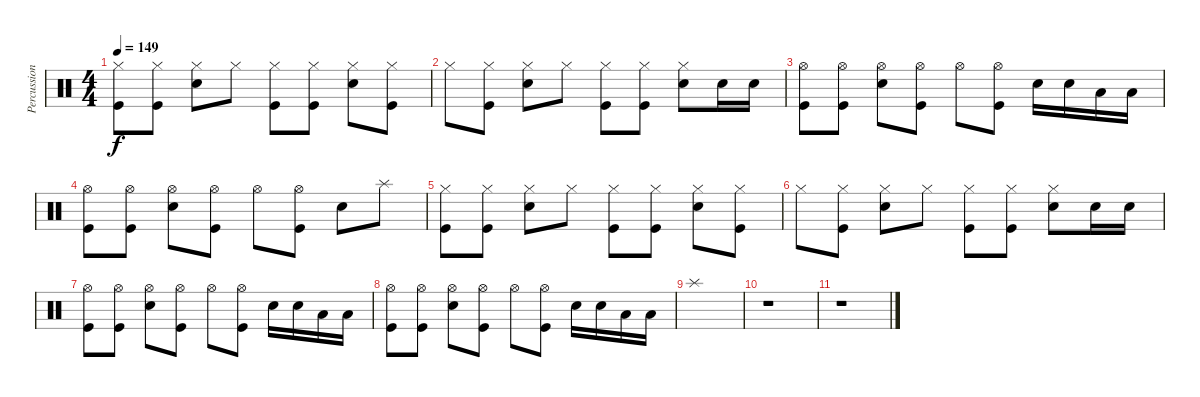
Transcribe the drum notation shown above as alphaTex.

\track ("Percussion" "Percussion") {instrument percussion}
\staff {score}
\articulation defaults
\ts (4 4)
\tempo 149
\clef neutral
\ks c
("Hi-Hat (closed)" "Kick (hit)").8{dy f} ("Hi-Hat (closed)" "Kick (hit)").8 ("Hi-Hat (closed)" "Snare (hit) 2").8 "Hi-Hat (closed)".8 ("Hi-Hat (closed)" "Kick (hit)").8 ("Hi-Hat (closed)" "Kick (hit)").8 ("Hi-Hat (closed)" "Snare (hit) 2").8 ("Hi-Hat (closed)" "Kick (hit)").8 |
"Hi-Hat (closed)".8 ("Hi-Hat (closed)" "Kick (hit)").8 ("Hi-Hat (closed)" "Snare (hit) 2").8 "Hi-Hat (closed)".8 ("Hi-Hat (closed)" "Kick (hit)").8 ("Hi-Hat (closed)" "Kick (hit)").8 ("Hi-Hat (closed)" "Snare (hit) 2").8 "Snare (hit) 2".16 "Snare (hit) 2".16 |
("Hi-Hat (open)" "Kick (hit)").8 ("Hi-Hat (open)" "Kick (hit)").8 ("Hi-Hat (open)" "Snare (hit) 2").8 ("Hi-Hat (open)" "Kick (hit)").8 "Hi-Hat (open)".8 ("Hi-Hat (open)" "Kick (hit)").8 "Snare (hit) 2".16 "Snare (hit) 2".16 "Low Tom (hit)".16 "Low Tom (hit)".16 |
("Hi-Hat (open)" "Kick (hit)").8 ("Hi-Hat (open)" "Kick (hit)").8 ("Hi-Hat (open)" "Snare (hit) 2").8 ("Hi-Hat (open)" "Kick (hit)").8 "Hi-Hat (open)".8 ("Hi-Hat (open)" "Kick (hit)").8 "Snare (hit) 2".8 "Splash (hit)".8 |
("Hi-Hat (closed)" "Kick (hit)").8 ("Hi-Hat (closed)" "Kick (hit)").8 ("Hi-Hat (closed)" "Snare (hit) 2").8 "Hi-Hat (closed)".8 ("Hi-Hat (closed)" "Kick (hit)").8 ("Hi-Hat (closed)" "Kick (hit)").8 ("Hi-Hat (closed)" "Snare (hit) 2").8 ("Hi-Hat (closed)" "Kick (hit)").8 |
"Hi-Hat (closed)".8 ("Hi-Hat (closed)" "Kick (hit)").8 ("Hi-Hat (closed)" "Snare (hit) 2").8 "Hi-Hat (closed)".8 ("Hi-Hat (closed)" "Kick (hit)").8 ("Hi-Hat (closed)" "Kick (hit)").8 ("Hi-Hat (closed)" "Snare (hit) 2").8 "Snare (hit) 2".16 "Snare (hit) 2".16 |
("Hi-Hat (open)" "Kick (hit)").8 ("Hi-Hat (open)" "Kick (hit)").8 ("Hi-Hat (open)" "Snare (hit) 2").8 ("Hi-Hat (open)" "Kick (hit)").8 "Hi-Hat (open)".8 ("Hi-Hat (open)" "Kick (hit)").8 "Snare (hit) 2".16 "Snare (hit) 2".16 "Low Tom (hit)".16 "Low Tom (hit)".16 |
("Hi-Hat (open)" "Kick (hit)").8 ("Hi-Hat (open)" "Kick (hit)").8 ("Hi-Hat (open)" "Snare (hit) 2").8 ("Hi-Hat (open)" "Kick (hit)").8 "Hi-Hat (open)".8 ("Hi-Hat (open)" "Kick (hit)").8 "Snare (hit) 2".16 "Snare (hit) 2".16 "Low Tom (hit)".16 "Low Tom (hit)".16 |
"Splash (hit)".1 |
r.1 |
r.1
